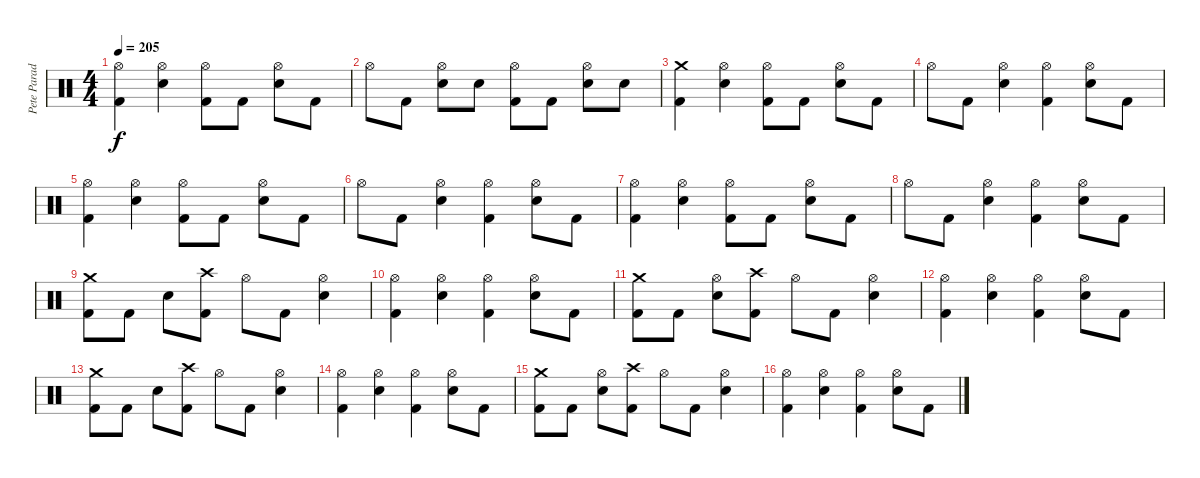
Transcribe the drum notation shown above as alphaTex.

\track ("Pete Parada - Drums" "Pete Parad") {instrument percussion}
\staff {score}
\articulation defaults
\ts (4 4)
\tempo 205
\clef neutral
\ks c
("Hi-Hat (open)" "Kick (hit) 2").4{dy f} ("Hi-Hat (open)" "Electric Snare (hit)").4 ("Hi-Hat (open)" "Kick (hit) 2").8 "Kick (hit) 2".8 ("Hi-Hat (open)" "Electric Snare (hit)").8 "Kick (hit) 2".8 |
"Hi-Hat (open)".8 "Kick (hit) 2".8 ("Hi-Hat (open)" "Electric Snare (hit)").8 "Electric Snare (hit)".8 ("Hi-Hat (open)" "Kick (hit) 2").8 "Kick (hit) 2".8 ("Hi-Hat (open)" "Electric Snare (hit)").8 "Electric Snare (hit)".8 |
("Crash medium (hit)" "Kick (hit) 2").4 ("Hi-Hat (open)" "Electric Snare (hit)").4 ("Hi-Hat (open)" "Kick (hit) 2").8 "Kick (hit) 2".8 ("Hi-Hat (open)" "Electric Snare (hit)").8 "Kick (hit) 2".8 |
"Hi-Hat (open)".8 "Kick (hit) 2".8 ("Hi-Hat (open)" "Electric Snare (hit)").4 ("Hi-Hat (open)" "Kick (hit) 2").4 ("Hi-Hat (open)" "Electric Snare (hit)").8 "Kick (hit) 2".8 |
("Hi-Hat (open)" "Kick (hit) 2").4 ("Hi-Hat (open)" "Electric Snare (hit)").4 ("Hi-Hat (open)" "Kick (hit) 2").8 "Kick (hit) 2".8 ("Hi-Hat (open)" "Electric Snare (hit)").8 "Kick (hit) 2".8 |
"Hi-Hat (open)".8 "Kick (hit) 2".8 ("Hi-Hat (open)" "Electric Snare (hit)").4 ("Hi-Hat (open)" "Kick (hit) 2").4 ("Hi-Hat (open)" "Electric Snare (hit)").8 "Kick (hit) 2".8 |
("Hi-Hat (open)" "Kick (hit) 2").4 ("Hi-Hat (open)" "Electric Snare (hit)").4 ("Hi-Hat (open)" "Kick (hit) 2").8 "Kick (hit) 2".8 ("Hi-Hat (open)" "Electric Snare (hit)").8 "Kick (hit) 2".8 |
"Hi-Hat (open)".8 "Kick (hit) 2".8 ("Hi-Hat (open)" "Electric Snare (hit)").4 ("Hi-Hat (open)" "Kick (hit) 2").4 ("Hi-Hat (open)" "Electric Snare (hit)").8 "Kick (hit) 2".8 |
("Crash medium (hit)" "Kick (hit) 2").8 "Kick (hit) 2".8 "Electric Snare (hit)".8 ("Crash high (hit)" "Kick (hit) 2").8 "Hi-Hat (open)".8 "Kick (hit) 2".8 ("Hi-Hat (open)" "Electric Snare (hit)").4 |
("Hi-Hat (open)" "Kick (hit) 2").4 ("Hi-Hat (open)" "Electric Snare (hit)").4 ("Hi-Hat (open)" "Kick (hit) 2").4 ("Hi-Hat (open)" "Electric Snare (hit)").8 "Kick (hit) 2".8 |
("Crash medium (hit)" "Kick (hit) 2").8 "Kick (hit) 2".8 ("Hi-Hat (open)" "Electric Snare (hit)").8 ("Crash high (hit)" "Kick (hit) 2").8 "Hi-Hat (open)".8 "Kick (hit) 2".8 ("Hi-Hat (open)" "Electric Snare (hit)").4 |
("Hi-Hat (open)" "Kick (hit) 2").4 ("Hi-Hat (open)" "Electric Snare (hit)").4 ("Hi-Hat (open)" "Kick (hit) 2").4 ("Hi-Hat (open)" "Electric Snare (hit)").8 "Kick (hit) 2".8 |
("Crash medium (hit)" "Kick (hit) 2").8 "Kick (hit) 2".8 "Electric Snare (hit)".8 ("Crash high (hit)" "Kick (hit) 2").8 "Hi-Hat (open)".8 "Kick (hit) 2".8 ("Hi-Hat (open)" "Electric Snare (hit)").4 |
("Hi-Hat (open)" "Kick (hit) 2").4 ("Hi-Hat (open)" "Electric Snare (hit)").4 ("Hi-Hat (open)" "Kick (hit) 2").4 ("Hi-Hat (open)" "Electric Snare (hit)").8 "Kick (hit) 2".8 |
("Crash medium (hit)" "Kick (hit) 2").8 "Kick (hit) 2".8 ("Hi-Hat (open)" "Electric Snare (hit)").8 ("Crash high (hit)" "Kick (hit) 2").8 "Hi-Hat (open)".8 "Kick (hit) 2".8 ("Hi-Hat (open)" "Electric Snare (hit)").4 |
("Hi-Hat (open)" "Kick (hit) 2").4 ("Hi-Hat (open)" "Electric Snare (hit)").4 ("Hi-Hat (open)" "Kick (hit) 2").4 ("Hi-Hat (open)" "Electric Snare (hit)").8 "Kick (hit) 2".8
